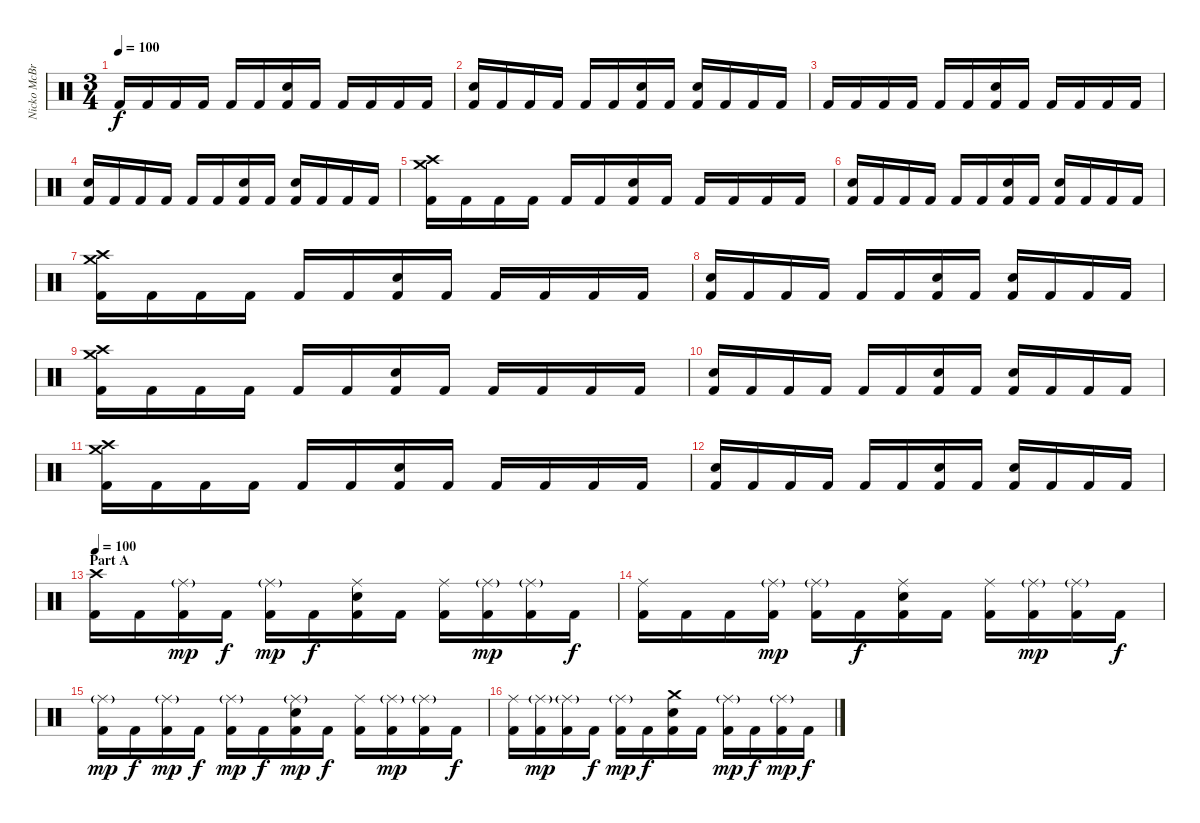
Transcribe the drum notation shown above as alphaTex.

\track ("Nicko McBrain" "Nicko McBr") {instrument percussion}
\staff {score}
\articulation defaults
\ts (3 4)
\tempo 100
\clef neutral
\ks c "Kick (hit) 2".16{dy f} "Kick (hit) 2".16 "Kick (hit) 2".16 "Kick (hit) 2".16 "Kick (hit) 2".16 "Kick (hit) 2".16
("Electric Snare (hit)" "Kick (hit) 2").16 "Kick (hit) 2".16 "Kick (hit) 2".16 "Kick (hit) 2".16 "Kick (hit) 2".16 "Kick (hit) 2".16 |
("Electric Snare (hit)" "Kick (hit) 2").16 "Kick (hit) 2".16 "Kick (hit) 2".16 "Kick (hit) 2".16 "Kick (hit) 2".16 "Kick (hit) 2".16 ("Electric Snare (hit)" "Kick (hit) 2").16 "Kick (hit) 2".16 ("Electric Snare (hit)" "Kick (hit) 2").16 "Kick (hit) 2".16 "Kick (hit) 2".16 "Kick (hit) 2".16 |
"Kick (hit) 2".16 "Kick (hit) 2".16 "Kick (hit) 2".16 "Kick (hit) 2".16 "Kick (hit) 2".16 "Kick (hit) 2".16 ("Electric Snare (hit)" "Kick (hit) 2").16 "Kick (hit) 2".16 "Kick (hit) 2".16 "Kick (hit) 2".16 "Kick (hit) 2".16 "Kick (hit) 2".16 |
("Electric Snare (hit)" "Kick (hit) 2").16 "Kick (hit) 2".16 "Kick (hit) 2".16 "Kick (hit) 2".16 "Kick (hit) 2".16 "Kick (hit) 2".16 ("Electric Snare (hit)" "Kick (hit) 2").16 "Kick (hit) 2".16 ("Electric Snare (hit)" "Kick (hit) 2").16 "Kick (hit) 2".16 "Kick (hit) 2".16 "Kick (hit) 2".16 |
("Crash medium (hit)" "Crash high (hit)" "Kick (hit) 2").16 "Kick (hit) 2".16 "Kick (hit) 2".16 "Kick (hit) 2".16 "Kick (hit) 2".16 "Kick (hit) 2".16 ("Electric Snare (hit)" "Kick (hit) 2").16 "Kick (hit) 2".16 "Kick (hit) 2".16 "Kick (hit) 2".16 "Kick (hit) 2".16 "Kick (hit) 2".16 |
("Electric Snare (hit)" "Kick (hit) 2").16 "Kick (hit) 2".16 "Kick (hit) 2".16 "Kick (hit) 2".16 "Kick (hit) 2".16 "Kick (hit) 2".16 ("Electric Snare (hit)" "Kick (hit) 2").16 "Kick (hit) 2".16 ("Electric Snare (hit)" "Kick (hit) 2").16 "Kick (hit) 2".16 "Kick (hit) 2".16 "Kick (hit) 2".16 |
("Crash medium (hit)" "Crash high (hit)" "Kick (hit) 2").16 "Kick (hit) 2".16 "Kick (hit) 2".16 "Kick (hit) 2".16 "Kick (hit) 2".16 "Kick (hit) 2".16 ("Electric Snare (hit)" "Kick (hit) 2").16 "Kick (hit) 2".16 "Kick (hit) 2".16 "Kick (hit) 2".16 "Kick (hit) 2".16 "Kick (hit) 2".16 |
("Electric Snare (hit)" "Kick (hit) 2").16 "Kick (hit) 2".16 "Kick (hit) 2".16 "Kick (hit) 2".16 "Kick (hit) 2".16 "Kick (hit) 2".16 ("Electric Snare (hit)" "Kick (hit) 2").16 "Kick (hit) 2".16 ("Electric Snare (hit)" "Kick (hit) 2").16 "Kick (hit) 2".16 "Kick (hit) 2".16 "Kick (hit) 2".16 |
("Crash medium (hit)" "Crash high (hit)" "Kick (hit) 2").16 "Kick (hit) 2".16 "Kick (hit) 2".16 "Kick (hit) 2".16 "Kick (hit) 2".16 "Kick (hit) 2".16 ("Electric Snare (hit)" "Kick (hit) 2").16 "Kick (hit) 2".16 "Kick (hit) 2".16 "Kick (hit) 2".16 "Kick (hit) 2".16 "Kick (hit) 2".16 |
("Electric Snare (hit)" "Kick (hit) 2").16 "Kick (hit) 2".16 "Kick (hit) 2".16 "Kick (hit) 2".16 "Kick (hit) 2".16 "Kick (hit) 2".16 ("Electric Snare (hit)" "Kick (hit) 2").16 "Kick (hit) 2".16 ("Electric Snare (hit)" "Kick (hit) 2").16 "Kick (hit) 2".16 "Kick (hit) 2".16 "Kick (hit) 2".16 |
("Crash medium (hit)" "Crash high (hit)" "Kick (hit) 2").16 "Kick (hit) 2".16 "Kick (hit) 2".16 "Kick (hit) 2".16 "Kick (hit) 2".16 "Kick (hit) 2".16 ("Electric Snare (hit)" "Kick (hit) 2").16 "Kick (hit) 2".16 "Kick (hit) 2".16 "Kick (hit) 2".16 "Kick (hit) 2".16 "Kick (hit) 2".16 |
("Electric Snare (hit)" "Kick (hit) 2").16 "Kick (hit) 2".16 "Kick (hit) 2".16 "Kick (hit) 2".16 "Kick (hit) 2".16 "Kick (hit) 2".16 ("Electric Snare (hit)" "Kick (hit) 2").16 "Kick (hit) 2".16 ("Electric Snare (hit)" "Kick (hit) 2").16 "Kick (hit) 2".16 "Kick (hit) 2".16 "Kick (hit) 2".16 |
\section ("" "Part A")
\tempo 100
("Crash high (hit)" "Kick (hit) 2").16{volume 13} "Kick (hit) 2".16 ("Ride (middle)"{g} "Kick (hit) 2").16{dy mp} "Kick (hit) 2".16{dy f} ("Ride (middle)"{g} "Kick (hit) 2").16{dy mp} "Kick (hit) 2".16{dy f} ("Ride (middle)" "Electric Snare (hit)" "Kick (hit) 2").16 "Kick (hit) 2".16 ("Ride (middle)" "Kick (hit) 2").16 ("Ride (middle)"{g} "Kick (hit) 2").16{dy mp} ("Ride (middle)"{g} "Kick (hit) 2").16 "Kick (hit) 2".16{dy f} |
("Ride (middle)" "Kick (hit) 2").16 "Kick (hit) 2".16 "Kick (hit) 2".16 ("Ride (middle)"{g} "Kick (hit) 2").16{dy mp} ("Ride (middle)"{g} "Kick (hit) 2").16 "Kick (hit) 2".16{dy f} ("Ride (middle)" "Electric Snare (hit)" "Kick (hit) 2").16 "Kick (hit) 2".16 ("Ride (middle)" "Kick (hit) 2").16 ("Ride (middle)"{g} "Kick (hit) 2").16{dy mp} ("Ride (middle)"{g} "Kick (hit) 2").16 "Kick (hit) 2".16{dy f} |
("Ride (middle)"{g} "Kick (hit) 2").16{dy mp} "Kick (hit) 2".16{dy f} ("Ride (middle)"{g} "Kick (hit) 2").16{dy mp} "Kick (hit) 2".16{dy f} ("Ride (middle)"{g} "Kick (hit) 2").16{dy mp} "Kick (hit) 2".16{dy f} ("Ride (middle)"{g} "Electric Snare (hit)" "Kick (hit) 2").16{dy mp} "Kick (hit) 2".16{dy f} ("Ride (middle)" "Kick (hit) 2").16 ("Ride (middle)"{g} "Kick (hit) 2").16{dy mp} ("Ride (middle)"{g} "Kick (hit) 2").16 "Kick (hit) 2".16{dy f} |
("Ride (middle)" "Kick (hit) 2").16 ("Ride (middle)"{g} "Kick (hit) 2").16{dy mp} ("Ride (middle)"{g} "Kick (hit) 2").16 "Kick (hit) 2".16{dy f} ("Ride (middle)"{g} "Kick (hit) 2").16{dy mp} "Kick (hit) 2".16{dy f} ("Crash medium (hit)" "Electric Snare (hit)" "Kick (hit) 2").16 "Kick (hit) 2".16 ("Ride (middle)"{g} "Kick (hit) 2").16{dy mp} "Kick (hit) 2".16{dy f} ("Ride (middle)"{g} "Kick (hit) 2").16{dy mp} "Kick (hit) 2".16{dy f}
